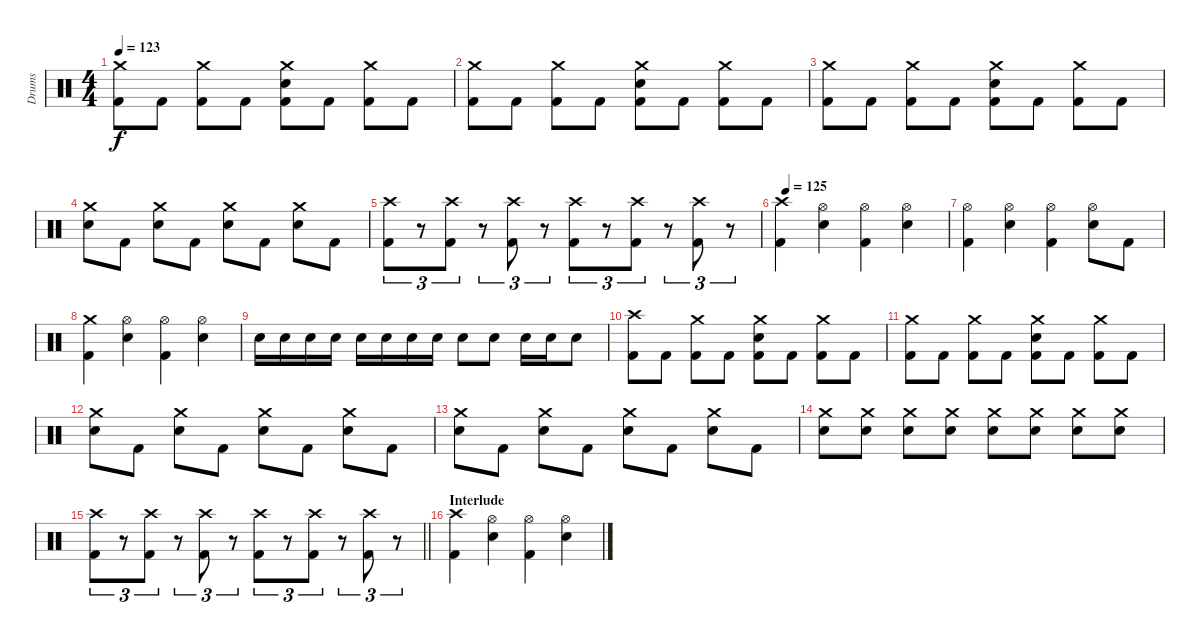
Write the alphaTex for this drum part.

\track ("Drums" "Drums") {instrument percussion}
\staff {score}
\articulation defaults
\ts (4 4)
\tempo 123
\clef neutral
\ks c
("Crash medium (hit)" "Kick (hit) 2").8{dy f} "Kick (hit) 2".8 ("Crash medium (hit)" "Kick (hit) 2").8 "Kick (hit) 2".8 ("Crash medium (hit)" "Snare (hit) 2" "Kick (hit) 2").8 "Kick (hit) 2".8 ("Crash medium (hit)" "Kick (hit) 2").8 "Kick (hit) 2".8 |
("Crash medium (hit)" "Kick (hit) 2").8 "Kick (hit) 2".8 ("Crash medium (hit)" "Kick (hit) 2").8 "Kick (hit) 2".8 ("Crash medium (hit)" "Snare (hit) 2" "Kick (hit) 2").8 "Kick (hit) 2".8 ("Crash medium (hit)" "Kick (hit) 2").8 "Kick (hit) 2".8 |
("Crash medium (hit)" "Kick (hit) 2").8 "Kick (hit) 2".8 ("Crash medium (hit)" "Kick (hit) 2").8 "Kick (hit) 2".8 ("Crash medium (hit)" "Snare (hit) 2" "Kick (hit) 2").8 "Kick (hit) 2".8 ("Crash medium (hit)" "Kick (hit) 2").8 "Kick (hit) 2".8 |
("Crash medium (hit)" "Snare (hit) 2").8 "Kick (hit) 2".8 ("Crash medium (hit)" "Snare (hit) 2").8 "Kick (hit) 2".8 ("Crash medium (hit)" "Snare (hit) 2").8 "Kick (hit) 2".8 ("Crash medium (hit)" "Snare (hit) 2").8 "Kick (hit) 2".8 |
("Crash high (hit)" "Kick (hit) 2").8{tu (3 2)} r.8{tu (3 2)} ("Crash high (hit)" "Kick (hit) 2").8{tu (3 2)} r.8{tu (3 2)} ("Crash high (hit)" "Kick (hit) 2").8{tu (3 2)} r.8{tu (3 2)} ("Crash high (hit)" "Kick (hit) 2").8{tu (3 2)} r.8{tu (3 2)} ("Crash high (hit)" "Kick (hit) 2").8{tu (3 2)} r.8{tu (3 2)} ("Crash high (hit)" "Kick (hit) 2").8{tu (3 2)} r.8{tu (3 2)} |
\tempo (125 0.03125)
("Crash high (hit)" "Kick (hit) 2").4 ("Hi-Hat (open)" "Snare (hit) 2").4 ("Hi-Hat (open)" "Kick (hit) 2").4 ("Hi-Hat (open)" "Snare (hit) 2").4 |
("Hi-Hat (open)" "Kick (hit) 2").4 ("Hi-Hat (open)" "Snare (hit) 2").4 ("Hi-Hat (open)" "Kick (hit) 2").4 ("Hi-Hat (open)" "Snare (hit) 2").8 "Kick (hit) 2".8 |
("Crash medium (hit)" "Kick (hit) 2").4 ("Hi-Hat (open)" "Snare (hit) 2").4 ("Hi-Hat (open)" "Kick (hit) 2").4 ("Hi-Hat (open)" "Snare (hit) 2").4 |
"Snare (hit) 2".16 "Snare (hit) 2".16 "Snare (hit) 2".16 "Snare (hit) 2".16 "Snare (hit) 2".16 "Snare (hit) 2".16 "Snare (hit) 2".16 "Snare (hit) 2".16 "Snare (hit) 2".8 "Snare (hit) 2".8 "Snare (hit) 2".16 "Snare (hit) 2".16 "Snare (hit) 2".8 |
("Crash high (hit)" "Kick (hit) 2").8 "Kick (hit) 2".8 ("Crash medium (hit)" "Kick (hit) 2").8 "Kick (hit) 2".8 ("Crash medium (hit)" "Snare (hit) 2" "Kick (hit) 2").8 "Kick (hit) 2".8 ("Crash medium (hit)" "Kick (hit) 2").8 "Kick (hit) 2".8 |
("Crash medium (hit)" "Kick (hit) 2").8 "Kick (hit) 2".8 ("Crash medium (hit)" "Kick (hit) 2").8 "Kick (hit) 2".8 ("Crash medium (hit)" "Snare (hit) 2" "Kick (hit) 2").8 "Kick (hit) 2".8 ("Crash medium (hit)" "Kick (hit) 2").8 "Kick (hit) 2".8 |
("Crash medium (hit)" "Snare (hit) 2").8 "Kick (hit) 2".8 ("Crash medium (hit)" "Snare (hit) 2").8 "Kick (hit) 2".8 ("Crash medium (hit)" "Snare (hit) 2").8 "Kick (hit) 2".8 ("Crash medium (hit)" "Snare (hit) 2").8 "Kick (hit) 2".8 |
("Crash medium (hit)" "Snare (hit) 2").8 "Kick (hit) 2".8 ("Crash medium (hit)" "Snare (hit) 2").8 "Kick (hit) 2".8 ("Crash medium (hit)" "Snare (hit) 2").8 "Kick (hit) 2".8 ("Crash medium (hit)" "Snare (hit) 2").8 "Kick (hit) 2".8 |
("Crash medium (hit)" "Snare (hit) 2").8 ("Crash medium (hit)" "Snare (hit) 2").8 ("Crash medium (hit)" "Snare (hit) 2").8 ("Crash medium (hit)" "Snare (hit) 2").8 ("Crash medium (hit)" "Snare (hit) 2").8 ("Crash medium (hit)" "Snare (hit) 2").8 ("Crash medium (hit)" "Snare (hit) 2").8 ("Crash medium (hit)" "Snare (hit) 2").8 |
\barLineRight lightlight
("Crash high (hit)" "Kick (hit) 2").8{tu (3 2)} r.8{tu (3 2)} ("Crash high (hit)" "Kick (hit) 2").8{tu (3 2)} r.8{tu (3 2)} ("Crash high (hit)" "Kick (hit) 2").8{tu (3 2)} r.8{tu (3 2)} ("Crash high (hit)" "Kick (hit) 2").8{tu (3 2)} r.8{tu (3 2)} ("Crash high (hit)" "Kick (hit) 2").8{tu (3 2)} r.8{tu (3 2)} ("Crash high (hit)" "Kick (hit) 2").8{tu (3 2)} r.8{tu (3 2)} |
\section ("" "Interlude")
("Crash high (hit)" "Kick (hit) 2").4 ("Hi-Hat (open)" "Snare (hit) 2").4 ("Hi-Hat (open)" "Kick (hit) 2").4 ("Hi-Hat (open)" "Snare (hit) 2").4
